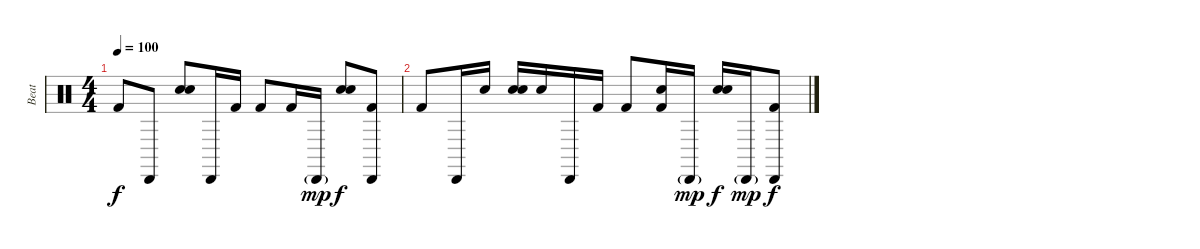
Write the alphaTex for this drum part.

\track ("Beat" "Beat") {instrument percussion}
\staff {score}
\articulation defaults
\ts (4 4)
\tempo 100
\clef neutral
\ks c "Kick (hit) 2".8{dy f} "Cabasa (hit)".8
("Electric Snare (hit)" "Hand Clap (hit)").8 "Cabasa (hit)".16 "Kick (hit) 2".16 "Kick (hit) 2".8 "Kick (hit) 2".16 "Cabasa (hit)"{g}.16{dy mp} ("Electric Snare (hit)" "Hand Clap (hit)").8{dy f} ("Cabasa (hit)" "Kick (hit) 2").8 |
"Kick (hit) 2".8 "Cabasa (hit)".16 "Electric Snare (hit)".16 ("Electric Snare (hit)" "Hand Clap (hit)").16 "Electric Snare (hit)".16 "Cabasa (hit)".16 "Kick (hit) 2".16 "Kick (hit) 2".8 ("Electric Snare (hit)" "Kick (hit) 2").16 "Cabasa (hit)"{g}.16{dy mp} ("Electric Snare (hit)" "Hand Clap (hit)").16{dy f} "Cabasa (hit)"{g}.16{dy mp} ("Cabasa (hit)" "Kick (hit) 2").8{dy f}
